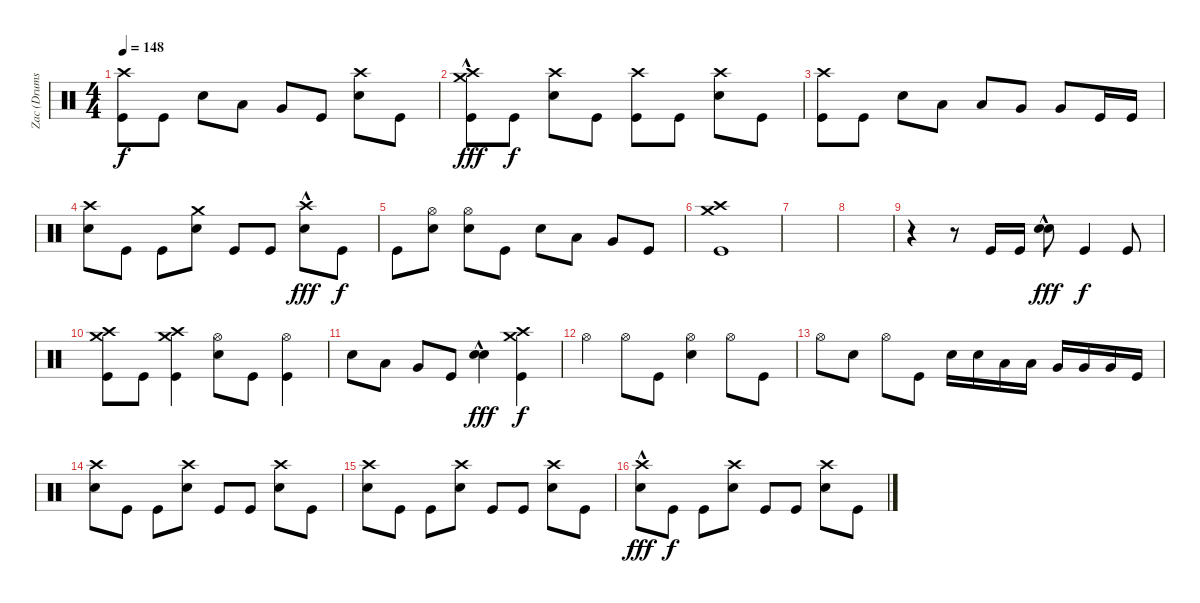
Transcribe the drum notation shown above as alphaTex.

\track ("Zac (Drums)" "Zac (Drums") {instrument percussion}
\staff {score}
\articulation defaults
\ts (4 4)
\tempo 148
\clef neutral
\ks c
("Crash high (hit)" "Kick (hit)").8{dy f} "Kick (hit)".8 "Electric Snare (hit)".8 "Low Tom (hit)".8 "Very Low Tom (hit)".8 "Kick (hit)".8 ("Crash high (hit)" "Electric Snare (hit)").8 "Kick (hit)".8 |
("Crash high (hit)"{hac} "Crash medium (hit)" "Kick (hit)").8{dy fff} "Kick (hit)".8{dy f} ("Crash high (hit)" "Electric Snare (hit)").8 "Kick (hit)".8 ("Crash high (hit)" "Kick (hit)").8 "Kick (hit)".8 ("Crash high (hit)" "Electric Snare (hit)").8 "Kick (hit)".8 |
("Crash high (hit)" "Kick (hit)").8 "Kick (hit)".8 "Electric Snare (hit)".8 "Low Tom (hit)".8 "Low Tom (hit)".8 "Very Low Tom (hit)".8 "Very Low Tom (hit)".8 "Kick (hit)".16 "Kick (hit)".16 |
("Crash high (hit)" "Electric Snare (hit)").8 "Kick (hit)".8 "Kick (hit)".8 ("Crash medium (hit)" "Electric Snare (hit)").8 "Kick (hit)".8 "Kick (hit)".8 ("Crash high (hit)"{hac} "Electric Snare (hit)").8{dy fff} "Kick (hit)".8{dy f} |
"Kick (hit)".8 ("Hi-Hat (open)" "Electric Snare (hit)").8 ("Hi-Hat (open)" "Electric Snare (hit)").8 "Kick (hit)".8 "Electric Snare (hit)".8 "Low Tom (hit)".8 "Very Low Tom (hit)".8 "Kick (hit)".8 |
("Crash high (hit)" "Crash medium (hit)" "Kick (hit)").1 |
|
|
r.4 r.8 "Kick (hit)".16 "Kick (hit)".16 ("Electric Snare (hit)"{hac} "Electric Snare (hit)"{hac}).8{dy fff} "Kick (hit)".4{dy f} "Kick (hit)".8 |
("Crash high (hit)" "Crash medium (hit)" "Kick (hit)").8 "Kick (hit)".8 ("Crash high (hit)" "Crash medium (hit)" "Kick (hit)").4 ("Hi-Hat (open)" "Electric Snare (hit)").8 "Kick (hit)".8 ("Hi-Hat (open)" "Kick (hit)").4 |
"Electric Snare (hit)".8 "Low Tom (hit)".8 "Very Low Tom (hit)".8 "Kick (hit)".8 ("Electric Snare (hit)"{hac} "Electric Snare (hit)"{hac}).4{dy fff} ("Crash high (hit)" "Crash medium (hit)" "Kick (hit)").4{dy f} |
"Hi-Hat (open)".4 "Hi-Hat (open)".8 "Kick (hit)".8 ("Hi-Hat (open)" "Electric Snare (hit)").4 "Hi-Hat (open)".8 "Kick (hit)".8 |
"Hi-Hat (open)".8 "Electric Snare (hit)".8 "Hi-Hat (open)".8 "Kick (hit)".8 "Electric Snare (hit)".16 "Electric Snare (hit)".16 "Low Tom (hit)".16 "Low Tom (hit)".16 "Very Low Tom (hit)".16 "Very Low Tom (hit)".16 "Very Low Tom (hit)".16 "Kick (hit)".16 |
("Crash high (hit)" "Electric Snare (hit)").8 "Kick (hit)".8 "Kick (hit)".8 ("Crash high (hit)" "Electric Snare (hit)").8 "Kick (hit)".8 "Kick (hit)".8 ("Crash high (hit)" "Electric Snare (hit)").8 "Kick (hit)".8 |
("Crash high (hit)" "Electric Snare (hit)").8 "Kick (hit)".8 "Kick (hit)".8 ("Crash high (hit)" "Electric Snare (hit)").8 "Kick (hit)".8 "Kick (hit)".8 ("Crash high (hit)" "Electric Snare (hit)").8 "Kick (hit)".8 |
("Crash high (hit)"{hac} "Electric Snare (hit)").8{dy fff} "Kick (hit)".8{dy f} "Kick (hit)".8 ("Crash high (hit)" "Electric Snare (hit)").8 "Kick (hit)".8 "Kick (hit)".8 ("Crash high (hit)" "Electric Snare (hit)").8 "Kick (hit)".8
